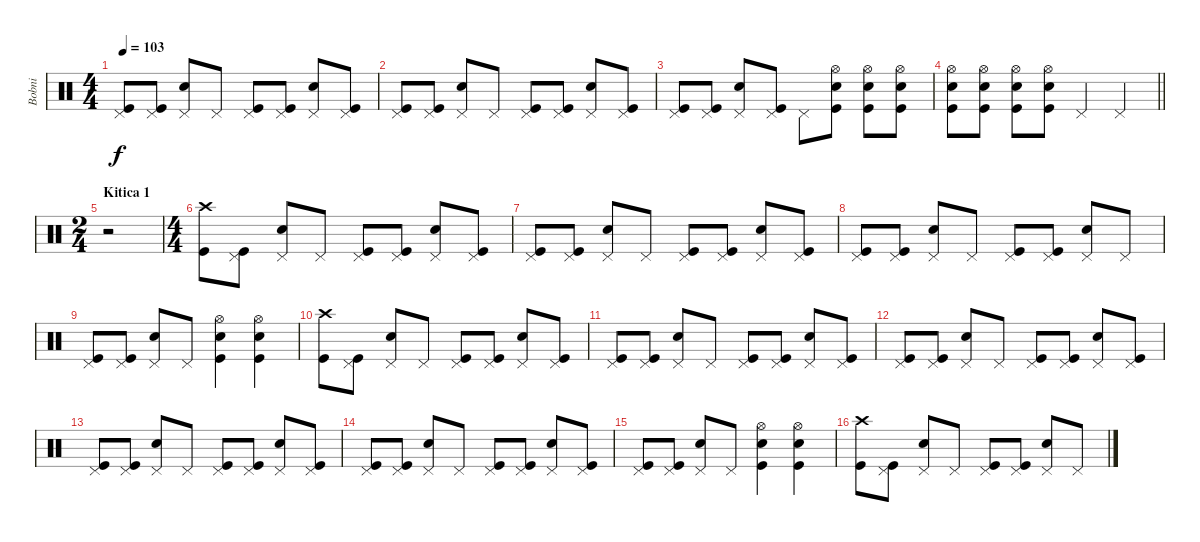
\track ("Bobni" "Bobni") {instrument percussion}
\staff {score}
\articulation defaults
\ts (4 4)
\tempo 103
\clef neutral
\ks aminor
("Pedal Hi-Hat (hit)" "Kick (hit)").8{dy f} ("Pedal Hi-Hat (hit)" "Kick (hit)").8 ("Pedal Hi-Hat (hit)" "Snare (hit) 2").8 "Pedal Hi-Hat (hit)".8 ("Pedal Hi-Hat (hit)" "Kick (hit)").8 ("Pedal Hi-Hat (hit)" "Kick (hit)").8 ("Pedal Hi-Hat (hit)" "Snare (hit) 2").8 ("Pedal Hi-Hat (hit)" "Kick (hit)").8 |
("Pedal Hi-Hat (hit)" "Kick (hit)").8 ("Pedal Hi-Hat (hit)" "Kick (hit)").8 ("Pedal Hi-Hat (hit)" "Snare (hit) 2").8 "Pedal Hi-Hat (hit)".8 ("Pedal Hi-Hat (hit)" "Kick (hit)").8 ("Pedal Hi-Hat (hit)" "Kick (hit)").8 ("Pedal Hi-Hat (hit)" "Snare (hit) 2").8 ("Pedal Hi-Hat (hit)" "Kick (hit)").8 |
("Pedal Hi-Hat (hit)" "Kick (hit)").8 ("Pedal Hi-Hat (hit)" "Kick (hit)").8 ("Pedal Hi-Hat (hit)" "Snare (hit) 2").8 ("Pedal Hi-Hat (hit)" "Kick (hit)").8 "Pedal Hi-Hat (hit)".8 ("Hi-Hat (open)" "Snare (hit) 2" "Kick (hit)").8 ("Hi-Hat (open)" "Snare (hit) 2" "Kick (hit)").8 ("Hi-Hat (open)" "Snare (hit) 2" "Kick (hit)").8 |
\barLineRight lightlight
("Hi-Hat (open)" "Snare (hit) 2" "Kick (hit)").8 ("Hi-Hat (open)" "Snare (hit) 2" "Kick (hit)").8 ("Hi-Hat (open)" "Snare (hit) 2" "Kick (hit)").8 ("Hi-Hat (open)" "Snare (hit) 2" "Kick (hit)").8 "Pedal Hi-Hat (hit)".4 "Pedal Hi-Hat (hit)".4 |
\ts (2 4)
\section ("" "Kitica 1")
r.2 |
\ts (4 4)
("Crash high (hit)" "Kick (hit)").8 ("Pedal Hi-Hat (hit)" "Kick (hit)").8 ("Pedal Hi-Hat (hit)" "Snare (hit) 2").8 "Pedal Hi-Hat (hit)".8 ("Pedal Hi-Hat (hit)" "Kick (hit)").8 ("Pedal Hi-Hat (hit)" "Kick (hit)").8 ("Pedal Hi-Hat (hit)" "Snare (hit) 2").8 ("Pedal Hi-Hat (hit)" "Kick (hit)").8 |
("Pedal Hi-Hat (hit)" "Kick (hit)").8 ("Pedal Hi-Hat (hit)" "Kick (hit)").8 ("Pedal Hi-Hat (hit)" "Snare (hit) 2").8 "Pedal Hi-Hat (hit)".8 ("Pedal Hi-Hat (hit)" "Kick (hit)").8 ("Pedal Hi-Hat (hit)" "Kick (hit)").8 ("Pedal Hi-Hat (hit)" "Snare (hit) 2").8 ("Pedal Hi-Hat (hit)" "Kick (hit)").8 |
("Pedal Hi-Hat (hit)" "Kick (hit)").8 ("Pedal Hi-Hat (hit)" "Kick (hit)").8 ("Pedal Hi-Hat (hit)" "Snare (hit) 2").8 "Pedal Hi-Hat (hit)".8 ("Pedal Hi-Hat (hit)" "Kick (hit)").8 ("Pedal Hi-Hat (hit)" "Kick (hit)").8 ("Pedal Hi-Hat (hit)" "Snare (hit) 2").8 "Pedal Hi-Hat (hit)".8 |
("Pedal Hi-Hat (hit)" "Kick (hit)").8 ("Pedal Hi-Hat (hit)" "Kick (hit)").8 ("Pedal Hi-Hat (hit)" "Snare (hit) 2").8 "Pedal Hi-Hat (hit)".8 ("Hi-Hat (open)" "Snare (hit) 2" "Kick (hit)").4 ("Hi-Hat (open)" "Snare (hit) 2" "Kick (hit)").4 |
("Crash high (hit)" "Kick (hit)").8 ("Pedal Hi-Hat (hit)" "Kick (hit)").8 ("Pedal Hi-Hat (hit)" "Snare (hit) 2").8 "Pedal Hi-Hat (hit)".8 ("Pedal Hi-Hat (hit)" "Kick (hit)").8 ("Pedal Hi-Hat (hit)" "Kick (hit)").8 ("Pedal Hi-Hat (hit)" "Snare (hit) 2").8 ("Pedal Hi-Hat (hit)" "Kick (hit)").8 |
("Pedal Hi-Hat (hit)" "Kick (hit)").8 ("Pedal Hi-Hat (hit)" "Kick (hit)").8 ("Pedal Hi-Hat (hit)" "Snare (hit) 2").8 "Pedal Hi-Hat (hit)".8 ("Pedal Hi-Hat (hit)" "Kick (hit)").8 ("Pedal Hi-Hat (hit)" "Kick (hit)").8 ("Pedal Hi-Hat (hit)" "Snare (hit) 2").8 ("Pedal Hi-Hat (hit)" "Kick (hit)").8 |
("Pedal Hi-Hat (hit)" "Kick (hit)").8 ("Pedal Hi-Hat (hit)" "Kick (hit)").8 ("Pedal Hi-Hat (hit)" "Snare (hit) 2").8 "Pedal Hi-Hat (hit)".8 ("Pedal Hi-Hat (hit)" "Kick (hit)").8 ("Pedal Hi-Hat (hit)" "Kick (hit)").8 ("Pedal Hi-Hat (hit)" "Snare (hit) 2").8 ("Pedal Hi-Hat (hit)" "Kick (hit)").8 |
("Pedal Hi-Hat (hit)" "Kick (hit)").8 ("Pedal Hi-Hat (hit)" "Kick (hit)").8 ("Pedal Hi-Hat (hit)" "Snare (hit) 2").8 "Pedal Hi-Hat (hit)".8 ("Pedal Hi-Hat (hit)" "Kick (hit)").8 ("Pedal Hi-Hat (hit)" "Kick (hit)").8 ("Pedal Hi-Hat (hit)" "Snare (hit) 2").8 ("Pedal Hi-Hat (hit)" "Kick (hit)").8 |
("Pedal Hi-Hat (hit)" "Kick (hit)").8 ("Pedal Hi-Hat (hit)" "Kick (hit)").8 ("Pedal Hi-Hat (hit)" "Snare (hit) 2").8 "Pedal Hi-Hat (hit)".8 ("Pedal Hi-Hat (hit)" "Kick (hit)").8 ("Pedal Hi-Hat (hit)" "Kick (hit)").8 ("Pedal Hi-Hat (hit)" "Snare (hit) 2").8 ("Pedal Hi-Hat (hit)" "Kick (hit)").8 |
("Pedal Hi-Hat (hit)" "Kick (hit)").8 ("Pedal Hi-Hat (hit)" "Kick (hit)").8 ("Pedal Hi-Hat (hit)" "Snare (hit) 2").8 "Pedal Hi-Hat (hit)".8 ("Hi-Hat (open)" "Snare (hit) 2" "Kick (hit)").4 ("Hi-Hat (open)" "Snare (hit) 2" "Kick (hit)").4 |
("Crash high (hit)" "Kick (hit)").8 ("Pedal Hi-Hat (hit)" "Kick (hit)").8 ("Pedal Hi-Hat (hit)" "Snare (hit) 2").8 "Pedal Hi-Hat (hit)".8 ("Pedal Hi-Hat (hit)" "Kick (hit)").8 ("Pedal Hi-Hat (hit)" "Kick (hit)").8 ("Pedal Hi-Hat (hit)" "Snare (hit) 2").8 "Pedal Hi-Hat (hit)".8
